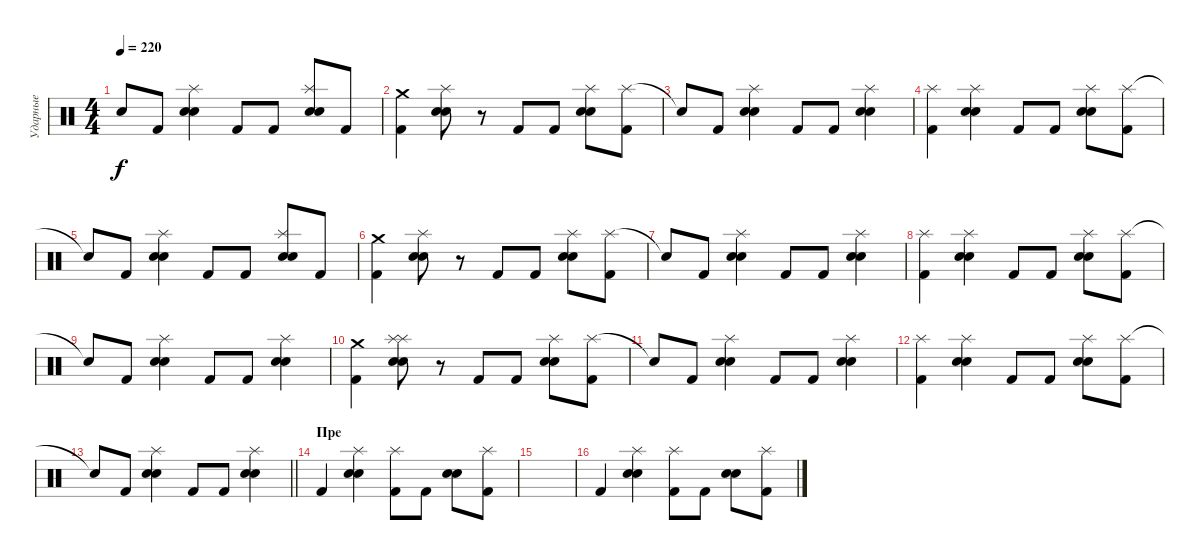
\track ("Ударные" "Ударные") {instrument percussion}
\staff {score}
\articulation defaults
\ts (4 4)
\tempo 220
\clef neutral
\ks c "Snare (hit)"{t}.8{dy f} "Kick (hit) 2".8
("Splash (hit)" "Electric Snare (hit)" "Snare (hit) 2").4 "Kick (hit) 2".8 "Kick (hit) 2".8 ("Splash (hit)" "Electric Snare (hit)" "Snare (hit) 2").8 "Kick (hit) 2".8 |
("Crash medium (hit)" "Kick (hit) 2").4 ("Splash (hit)" "Electric Snare (hit)" "Snare (hit) 2").8 r.8 "Kick (hit) 2".8 "Kick (hit) 2".8 ("Splash (hit)" "Electric Snare (hit)" "Snare (hit) 2").8 ("Splash (hit)" "Kick (hit) 2").8 |
"Snare (hit)"{t}.8 "Kick (hit) 2".8 ("Splash (hit)" "Electric Snare (hit)" "Snare (hit) 2").4 "Kick (hit) 2".8 "Kick (hit) 2".8 ("Splash (hit)" "Electric Snare (hit)" "Snare (hit) 2").4 |
("Splash (hit)" "Kick (hit) 2").4 ("Splash (hit)" "Electric Snare (hit)" "Snare (hit) 2").4 "Kick (hit) 2".8 "Kick (hit) 2".8 ("Splash (hit)" "Electric Snare (hit)" "Snare (hit) 2").8 ("Splash (hit)" "Kick (hit) 2").8 |
"Snare (hit)"{t}.8 "Kick (hit) 2".8 ("Splash (hit)" "Electric Snare (hit)" "Snare (hit) 2").4 "Kick (hit) 2".8 "Kick (hit) 2".8 ("Splash (hit)" "Electric Snare (hit)" "Snare (hit) 2").8 "Kick (hit) 2".8 |
("Crash medium (hit)" "Kick (hit) 2").4 ("Splash (hit)" "Electric Snare (hit)" "Snare (hit) 2").8 r.8 "Kick (hit) 2".8 "Kick (hit) 2".8 ("Splash (hit)" "Electric Snare (hit)" "Snare (hit) 2").8 ("Splash (hit)" "Kick (hit) 2").8 |
"Snare (hit)"{t}.8 "Kick (hit) 2".8 ("Splash (hit)" "Electric Snare (hit)" "Snare (hit) 2").4 "Kick (hit) 2".8 "Kick (hit) 2".8 ("Splash (hit)" "Electric Snare (hit)" "Snare (hit) 2").4 |
("Splash (hit)" "Kick (hit) 2").4 ("Splash (hit)" "Electric Snare (hit)" "Snare (hit) 2").4 "Kick (hit) 2".8 "Kick (hit) 2".8 ("Splash (hit)" "Electric Snare (hit)" "Snare (hit) 2").8 ("Splash (hit)" "Kick (hit) 2").8 |
"Snare (hit)"{t}.8 "Kick (hit) 2".8 ("Splash (hit)" "Electric Snare (hit)" "Snare (hit) 2").4 "Kick (hit) 2".8 "Kick (hit) 2".8 ("Splash (hit)" "Electric Snare (hit)" "Snare (hit) 2").4 |
("Crash medium (hit)" "Kick (hit) 2").4 ("Splash (hit)" "Splash (hit)" "Electric Snare (hit)" "Snare (hit) 2").8 r.8 "Kick (hit) 2".8 "Kick (hit) 2".8 ("Splash (hit)" "Electric Snare (hit)" "Snare (hit) 2").8 ("Splash (hit)" "Kick (hit) 2").8 |
"Snare (hit)"{t}.8 "Kick (hit) 2".8 ("Splash (hit)" "Electric Snare (hit)" "Snare (hit) 2").4 "Kick (hit) 2".8 "Kick (hit) 2".8 ("Splash (hit)" "Electric Snare (hit)" "Snare (hit) 2").4 |
("Splash (hit)" "Kick (hit) 2").4 ("Splash (hit)" "Electric Snare (hit)" "Snare (hit) 2").4 "Kick (hit) 2".8 "Kick (hit) 2".8 ("Splash (hit)" "Electric Snare (hit)" "Snare (hit) 2").8 ("Splash (hit)" "Kick (hit) 2").8 |
\barLineRight lightlight "Snare (hit)"{t}.8 "Kick (hit) 2".8
("Splash (hit)" "Electric Snare (hit)" "Snare (hit) 2").4 "Kick (hit) 2".8 "Kick (hit) 2".8 ("Splash (hit)" "Electric Snare (hit)" "Snare (hit) 2").4 |
\section ("" "Пре")
"Kick (hit) 2".4 ("Splash (hit)" "Snare (hit) 2" "Electric Snare (hit)").4 ("Splash (hit)" "Kick (hit) 2").8 "Kick (hit) 2".8 ("Electric Snare (hit)" "Snare (hit) 2").8 ("Splash (hit)" "Kick (hit) 2").8 |
|
"Kick (hit) 2".4 ("Splash (hit)" "Snare (hit) 2" "Electric Snare (hit)").4 ("Splash (hit)" "Kick (hit) 2").8 "Kick (hit) 2".8 ("Electric Snare (hit)" "Snare (hit) 2").8 ("Splash (hit)" "Kick (hit) 2").8
